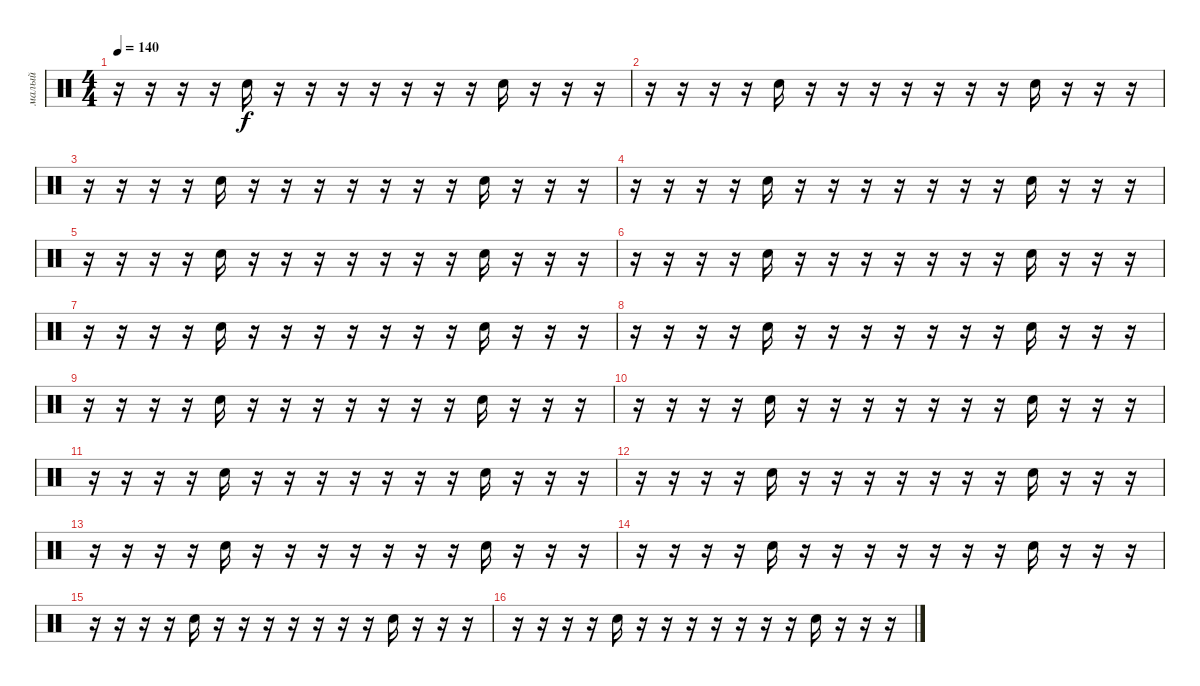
\track ("малый" "малый") {mute instrument percussion}
\staff {score}
\articulation defaults
\ts (4 4)
\tempo 140
\clef neutral
\ks c
r.16{dy f} r.16 r.16 r.16 "Electric Snare (hit)".16 r.16 r.16 r.16 r.16 r.16 r.16 r.16 "Electric Snare (hit)".16 r.16 r.16 r.16 |
r.16 r.16 r.16 r.16 "Electric Snare (hit)".16 r.16 r.16 r.16 r.16 r.16 r.16 r.16 "Electric Snare (hit)".16 r.16 r.16 r.16 |
r.16 r.16 r.16 r.16 "Electric Snare (hit)".16 r.16 r.16 r.16 r.16 r.16 r.16 r.16 "Electric Snare (hit)".16 r.16 r.16 r.16 |
r.16 r.16 r.16 r.16 "Electric Snare (hit)".16 r.16 r.16 r.16 r.16 r.16 r.16 r.16 "Electric Snare (hit)".16 r.16 r.16 r.16 |
r.16 r.16 r.16 r.16 "Electric Snare (hit)".16 r.16 r.16 r.16 r.16 r.16 r.16 r.16 "Electric Snare (hit)".16 r.16 r.16 r.16 |
r.16 r.16 r.16 r.16 "Electric Snare (hit)".16 r.16 r.16 r.16 r.16 r.16 r.16 r.16 "Electric Snare (hit)".16 r.16 r.16 r.16 |
r.16 r.16 r.16 r.16 "Electric Snare (hit)".16 r.16 r.16 r.16 r.16 r.16 r.16 r.16 "Electric Snare (hit)".16 r.16 r.16 r.16 |
r.16 r.16 r.16 r.16 "Electric Snare (hit)".16 r.16 r.16 r.16 r.16 r.16 r.16 r.16 "Electric Snare (hit)".16 r.16 r.16 r.16 |
r.16 r.16 r.16 r.16 "Electric Snare (hit)".16 r.16 r.16 r.16 r.16 r.16 r.16 r.16 "Electric Snare (hit)".16 r.16 r.16 r.16 |
r.16 r.16 r.16 r.16 "Electric Snare (hit)".16 r.16 r.16 r.16 r.16 r.16 r.16 r.16 "Electric Snare (hit)".16 r.16 r.16 r.16 |
r.16 r.16 r.16 r.16 "Electric Snare (hit)".16 r.16 r.16 r.16 r.16 r.16 r.16 r.16 "Electric Snare (hit)".16 r.16 r.16 r.16 |
r.16 r.16 r.16 r.16 "Electric Snare (hit)".16 r.16 r.16 r.16 r.16 r.16 r.16 r.16 "Electric Snare (hit)".16 r.16 r.16 r.16 |
r.16 r.16 r.16 r.16 "Electric Snare (hit)".16 r.16 r.16 r.16 r.16 r.16 r.16 r.16 "Electric Snare (hit)".16 r.16 r.16 r.16 |
r.16 r.16 r.16 r.16 "Electric Snare (hit)".16 r.16 r.16 r.16 r.16 r.16 r.16 r.16 "Electric Snare (hit)".16 r.16 r.16 r.16 |
r.16 r.16 r.16 r.16 "Electric Snare (hit)".16 r.16 r.16 r.16 r.16 r.16 r.16 r.16 "Electric Snare (hit)".16 r.16 r.16 r.16 |
r.16 r.16 r.16 r.16 "Electric Snare (hit)".16 r.16 r.16 r.16 r.16 r.16 r.16 r.16 "Electric Snare (hit)".16 r.16 r.16 r.16
